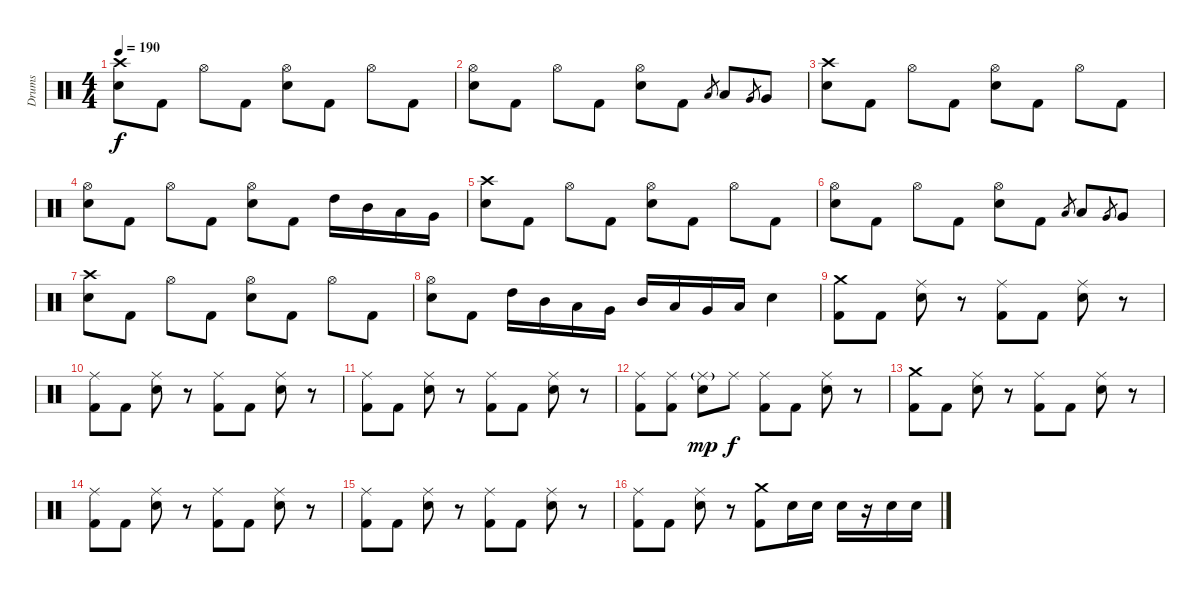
\track ("Drums" "Drums") {instrument percussion}
\staff {score}
\articulation defaults
\ts (4 4)
\tempo 190
\clef neutral
\ks c
("Crash high (hit)" "Electric Snare (hit)").8{dy f} "Kick (hit) 2".8 "Hi-Hat (open)".8 "Kick (hit) 2".8 ("Hi-Hat (open)" "Electric Snare (hit)").8 "Kick (hit) 2".8 "Hi-Hat (open)".8 "Kick (hit) 2".8 |
("Hi-Hat (open)" "Electric Snare (hit)").8 "Kick (hit) 2".8 "Hi-Hat (open)".8 "Kick (hit) 2".8 ("Hi-Hat (open)" "Electric Snare (hit)").8 "Kick (hit) 2".8 "Low Tom (hit)".8{gr} "Low Tom (hit)".8 "Very Low Tom (hit)".8{gr} "Very Low Tom (hit)".8 |
("Crash high (hit)" "Electric Snare (hit)").8 "Kick (hit) 2".8 "Hi-Hat (open)".8 "Kick (hit) 2".8 ("Hi-Hat (open)" "Electric Snare (hit)").8 "Kick (hit) 2".8 "Hi-Hat (open)".8 "Kick (hit) 2".8 |
("Hi-Hat (open)" "Electric Snare (hit)").8 "Kick (hit) 2".8 "Hi-Hat (open)".8 "Kick (hit) 2".8 ("Hi-Hat (open)" "Electric Snare (hit)").8 "Kick (hit) 2".8 "High Tom (hit)".16 "Mid Tom (hit)".16 "Low Tom (hit)".16 "Very Low Tom (hit)".16 |
("Crash high (hit)" "Electric Snare (hit)").8 "Kick (hit) 2".8 "Hi-Hat (open)".8 "Kick (hit) 2".8 ("Hi-Hat (open)" "Electric Snare (hit)").8 "Kick (hit) 2".8 "Hi-Hat (open)".8 "Kick (hit) 2".8 |
("Hi-Hat (open)" "Electric Snare (hit)").8 "Kick (hit) 2".8 "Hi-Hat (open)".8 "Kick (hit) 2".8 ("Hi-Hat (open)" "Electric Snare (hit)").8 "Kick (hit) 2".8 "Low Tom (hit)".8{gr} "Low Tom (hit)".8 "Very Low Tom (hit)".8{gr} "Very Low Tom (hit)".8 |
("Crash high (hit)" "Electric Snare (hit)").8 "Kick (hit) 2".8 "Hi-Hat (open)".8 "Kick (hit) 2".8 ("Hi-Hat (open)" "Electric Snare (hit)").8 "Kick (hit) 2".8 "Hi-Hat (open)".8 "Kick (hit) 2".8 |
("Hi-Hat (open)" "Electric Snare (hit)").8 "Kick (hit) 2".8 "High Tom (hit)".16 "Mid Tom (hit)".16 "Low Tom (hit)".16 "Very Low Tom (hit)".16 "Mid Tom (hit)".16 "Low Tom (hit)".16 "Very Low Tom (hit)".16 "Low Floor Tom (hit)".16 "Electric Snare (hit)".4 |
("Crash medium (hit)" "Kick (hit) 2").8 "Kick (hit) 2".8 ("Ride (middle)" "Electric Snare (hit)").8 r.8 ("Ride (middle)" "Kick (hit) 2").8 "Kick (hit) 2".8 ("Ride (middle)" "Electric Snare (hit)").8 r.8 |
("Ride (middle)" "Kick (hit) 2").8 "Kick (hit) 2".8 ("Ride (middle)" "Electric Snare (hit)").8 r.8 ("Ride (middle)" "Kick (hit) 2").8 "Kick (hit) 2".8 ("Ride (middle)" "Electric Snare (hit)").8 r.8 |
("Ride (middle)" "Kick (hit) 2").8 "Kick (hit) 2".8 ("Ride (middle)" "Electric Snare (hit)").8 r.8 ("Ride (middle)" "Kick (hit) 2").8 "Kick (hit) 2".8 ("Ride (middle)" "Electric Snare (hit)").8 r.8 |
("Ride (middle)" "Kick (hit) 2").8 ("Ride (middle)" "Kick (hit) 2").8 ("Ride (middle)"{g} "Electric Snare (hit)").8{dy mp} "Ride (middle)".8{dy f} ("Ride (middle)" "Kick (hit) 2").8 "Kick (hit) 2".8 ("Ride (middle)" "Electric Snare (hit)").8 r.8 |
("Crash medium (hit)" "Kick (hit) 2").8 "Kick (hit) 2".8 ("Ride (middle)" "Electric Snare (hit)").8 r.8 ("Ride (middle)" "Kick (hit) 2").8 "Kick (hit) 2".8 ("Ride (middle)" "Electric Snare (hit)").8 r.8 |
("Ride (middle)" "Kick (hit) 2").8 "Kick (hit) 2".8 ("Ride (middle)" "Electric Snare (hit)").8 r.8 ("Ride (middle)" "Kick (hit) 2").8 "Kick (hit) 2".8 ("Ride (middle)" "Electric Snare (hit)").8 r.8 |
("Ride (middle)" "Kick (hit) 2").8 "Kick (hit) 2".8 ("Ride (middle)" "Electric Snare (hit)").8 r.8 ("Ride (middle)" "Kick (hit) 2").8 "Kick (hit) 2".8 ("Ride (middle)" "Electric Snare (hit)").8 r.8 |
("Ride (middle)" "Kick (hit) 2").8 "Kick (hit) 2".8 ("Ride (middle)" "Electric Snare (hit)").8 r.8 ("Crash medium (hit)" "Kick (hit) 2").8 "Electric Snare (hit)".16 "Electric Snare (hit)".16 "Electric Snare (hit)".16 r.16 "Electric Snare (hit)".16 "Electric Snare (hit)".16
